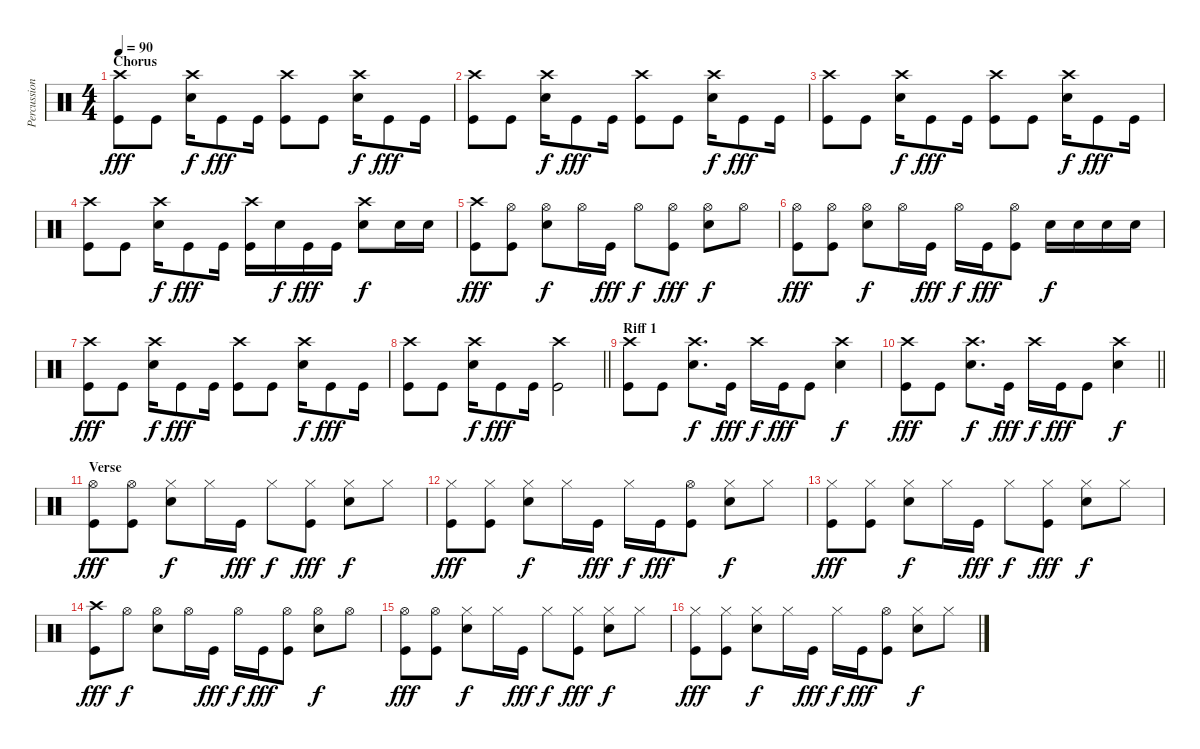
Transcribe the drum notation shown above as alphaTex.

\track ("Percussion" "Percussion") {instrument percussion}
\staff {score}
\articulation defaults
\ts (4 4)
\section ("" "Chorus")
\tempo 90
\clef neutral
\ks c
("Crash high (hit)" "Kick (hit)").8{dy fff} "Kick (hit)".8 ("Crash high (hit)" "Electric Snare (hit)").16{dy f} "Kick (hit)".8{dy fff} "Kick (hit)".16 ("Crash high (hit)" "Kick (hit)").8 "Kick (hit)".8 ("Crash high (hit)" "Electric Snare (hit)").16{dy f} "Kick (hit)".8{dy fff} "Kick (hit)".16 |
("Crash high (hit)" "Kick (hit)").8 "Kick (hit)".8 ("Crash high (hit)" "Electric Snare (hit)").16{dy f} "Kick (hit)".8{dy fff} "Kick (hit)".16 ("Crash high (hit)" "Kick (hit)").8 "Kick (hit)".8 ("Crash high (hit)" "Electric Snare (hit)").16{dy f} "Kick (hit)".8{dy fff} "Kick (hit)".16 |
("Crash high (hit)" "Kick (hit)").8 "Kick (hit)".8 ("Crash high (hit)" "Electric Snare (hit)").16{dy f} "Kick (hit)".8{dy fff} "Kick (hit)".16 ("Crash high (hit)" "Kick (hit)").8 "Kick (hit)".8 ("Crash high (hit)" "Electric Snare (hit)").16{dy f} "Kick (hit)".8{dy fff} "Kick (hit)".16 |
("Crash high (hit)" "Kick (hit)").8 "Kick (hit)".8 ("Crash high (hit)" "Electric Snare (hit)").16{dy f} "Kick (hit)".8{dy fff} "Kick (hit)".16 ("Crash high (hit)" "Kick (hit)").16 "Electric Snare (hit)".16{dy f} "Kick (hit)".16{dy fff} "Kick (hit)".16 ("Crash high (hit)" "Electric Snare (hit)").8{dy f} "Electric Snare (hit)".16 "Electric Snare (hit)".16 |
("Crash high (hit)" "Kick (hit)").8{dy fff} ("Hi-Hat (open)" "Kick (hit)").8 ("Hi-Hat (open)" "Electric Snare (hit)").8{dy f} "Hi-Hat (open)".16 "Kick (hit)".16{dy fff} "Hi-Hat (open)".8{dy f} ("Hi-Hat (open)" "Kick (hit)").8{dy fff} ("Hi-Hat (open)" "Electric Snare (hit)").8{dy f} "Hi-Hat (open)".8 |
("Hi-Hat (open)" "Kick (hit)").8{dy fff} ("Hi-Hat (open)" "Kick (hit)").8 ("Hi-Hat (open)" "Electric Snare (hit)").8{dy f} "Hi-Hat (open)".16 "Kick (hit)".16{dy fff} "Hi-Hat (open)".16{dy f} "Kick (hit)".16{dy fff} ("Hi-Hat (open)" "Kick (hit)").8 "Electric Snare (hit)".16{dy f} "Electric Snare (hit)".16 "Electric Snare (hit)".16 "Electric Snare (hit)".16 |
("Crash high (hit)" "Kick (hit)").8{dy fff} "Kick (hit)".8 ("Crash high (hit)" "Electric Snare (hit)").16{dy f} "Kick (hit)".8{dy fff} "Kick (hit)".16 ("Crash high (hit)" "Kick (hit)").8 "Kick (hit)".8 ("Crash high (hit)" "Electric Snare (hit)").16{dy f} "Kick (hit)".8{dy fff} "Kick (hit)".16 |
\barLineRight lightlight
("Crash high (hit)" "Kick (hit)").8 "Kick (hit)".8 ("Crash high (hit)" "Electric Snare (hit)").16{dy f} "Kick (hit)".8{dy fff} "Kick (hit)".16 ("Crash high (hit)" "Kick (hit)").2 |
\section ("" "Riff 1")
("Crash high (hit)" "Kick (hit)").8 "Kick (hit)".8 ("Crash high (hit)" "Electric Snare (hit)").8{d dy f} "Kick (hit)".16{dy fff} "Crash high (hit)".16{dy f} "Kick (hit)".16{dy fff} "Kick (hit)".8 ("Crash high (hit)" "Electric Snare (hit)").4{dy f} |
\barLineRight lightlight
("Crash high (hit)" "Kick (hit)").8{dy fff} "Kick (hit)".8 ("Crash high (hit)" "Electric Snare (hit)").8{d dy f} "Kick (hit)".16{dy fff} "Crash high (hit)".16{dy f} "Kick (hit)".16{dy fff} "Kick (hit)".8 ("Crash high (hit)" "Electric Snare (hit)").4{dy f} |
\section ("" "Verse")
("Hi-Hat (open)" "Kick (hit)").8{dy fff} ("Hi-Hat (open)" "Kick (hit)").8 ("Hi-Hat (closed)" "Electric Snare (hit)").8{dy f} "Hi-Hat (closed)".16 "Kick (hit)".16{dy fff} "Hi-Hat (closed)".8{dy f} ("Hi-Hat (closed)" "Kick (hit)").8{dy fff} ("Hi-Hat (closed)" "Electric Snare (hit)").8{dy f} "Hi-Hat (closed)".8 |
("Hi-Hat (closed)" "Kick (hit)").8{dy fff} ("Hi-Hat (closed)" "Kick (hit)").8 ("Hi-Hat (closed)" "Electric Snare (hit)").8{dy f} "Hi-Hat (closed)".16 "Kick (hit)".16{dy fff} "Hi-Hat (closed)".16{dy f} "Kick (hit)".16{dy fff} ("Hi-Hat (open)" "Kick (hit)").8 ("Hi-Hat (closed)" "Electric Snare (hit)").8{dy f} "Hi-Hat (closed)".8 |
("Hi-Hat (closed)" "Kick (hit)").8{dy fff} ("Hi-Hat (closed)" "Kick (hit)").8 ("Hi-Hat (closed)" "Electric Snare (hit)").8{dy f} "Hi-Hat (closed)".16 "Kick (hit)".16{dy fff} "Hi-Hat (closed)".8{dy f} ("Hi-Hat (closed)" "Kick (hit)").8{dy fff} ("Hi-Hat (closed)" "Electric Snare (hit)").8{dy f} "Hi-Hat (closed)".8 |
("Crash high (hit)" "Kick (hit)").8{dy fff} "Hi-Hat (open)".8{dy f} ("Hi-Hat (open)" "Electric Snare (hit)").8 "Hi-Hat (open)".16 "Kick (hit)".16{dy fff} "Hi-Hat (open)".16{dy f} "Kick (hit)".16{dy fff} ("Hi-Hat (open)" "Kick (hit)").8 ("Hi-Hat (open)" "Electric Snare (hit)").8{dy f} "Hi-Hat (open)".8 |
("Hi-Hat (open)" "Kick (hit)").8{dy fff} ("Hi-Hat (open)" "Kick (hit)").8 ("Hi-Hat (closed)" "Electric Snare (hit)").8{dy f} "Hi-Hat (closed)".16 "Kick (hit)".16{dy fff} "Hi-Hat (closed)".8{dy f} ("Hi-Hat (closed)" "Kick (hit)").8{dy fff} ("Hi-Hat (closed)" "Electric Snare (hit)").8{dy f} "Hi-Hat (closed)".8 |
("Hi-Hat (closed)" "Kick (hit)").8{dy fff} ("Hi-Hat (closed)" "Kick (hit)").8 ("Hi-Hat (closed)" "Electric Snare (hit)").8{dy f} "Hi-Hat (closed)".16 "Kick (hit)".16{dy fff} "Hi-Hat (closed)".16{dy f} "Kick (hit)".16{dy fff} ("Hi-Hat (open)" "Kick (hit)").8 ("Hi-Hat (closed)" "Electric Snare (hit)").8{dy f} "Hi-Hat (closed)".8
